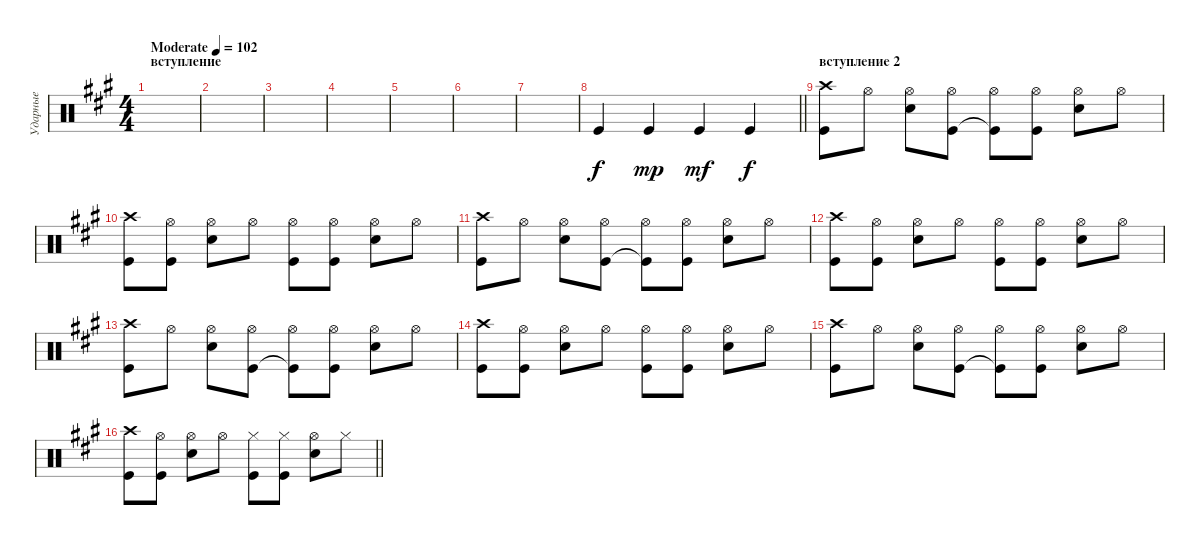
\track ("Ударные" "Ударные") {instrument percussion}
\staff {score}
\articulation defaults
\ts (4 4)
\section ("" "вступление")
\tempo (102 "Moderate")
\clef neutral
\ks f#minor
|
|
|
|
|
|
|
\barLineRight lightlight "Kick (hit)".4 "Kick (hit)".4{dy mp} "Kick (hit)".4{dy mf} "Kick (hit)".4{dy f}
|
\section ("" "вступление 2")
("Crash high (hit)" "Kick (hit)").8 "Hi-Hat (open)".8 ("Hi-Hat (open)" "Snare (hit) 2").8 ("Hi-Hat (open)" "Kick (hit)").8 ("Hi-Hat (open)" "Kick (hit)"{t}).8 ("Hi-Hat (open)" "Kick (hit)").8 ("Hi-Hat (open)" "Snare (hit) 2").8 "Hi-Hat (open)".8 |
("Crash high (hit)" "Kick (hit)").8 ("Hi-Hat (open)" "Kick (hit)").8 ("Hi-Hat (open)" "Snare (hit) 2").8 "Hi-Hat (open)".8 ("Hi-Hat (open)" "Kick (hit)").8 ("Hi-Hat (open)" "Kick (hit)").8 ("Hi-Hat (open)" "Snare (hit) 2").8 "Hi-Hat (open)".8 |
("Crash high (hit)" "Kick (hit)").8 "Hi-Hat (open)".8 ("Hi-Hat (open)" "Snare (hit) 2").8 ("Hi-Hat (open)" "Kick (hit)").8 ("Hi-Hat (open)" "Kick (hit)"{t}).8 ("Hi-Hat (open)" "Kick (hit)").8 ("Hi-Hat (open)" "Snare (hit) 2").8 "Hi-Hat (open)".8 |
("Crash high (hit)" "Kick (hit)").8 ("Hi-Hat (open)" "Kick (hit)").8 ("Hi-Hat (open)" "Snare (hit) 2").8 "Hi-Hat (open)".8 ("Hi-Hat (open)" "Kick (hit)").8 ("Hi-Hat (open)" "Kick (hit)").8 ("Hi-Hat (open)" "Snare (hit) 2").8 "Hi-Hat (open)".8 |
("Crash high (hit)" "Kick (hit)").8 "Hi-Hat (open)".8 ("Hi-Hat (open)" "Snare (hit) 2").8 ("Hi-Hat (open)" "Kick (hit)").8 ("Hi-Hat (open)" "Kick (hit)"{t}).8 ("Hi-Hat (open)" "Kick (hit)").8 ("Hi-Hat (open)" "Snare (hit) 2").8 "Hi-Hat (open)".8 |
("Crash high (hit)" "Kick (hit)").8 ("Hi-Hat (open)" "Kick (hit)").8 ("Hi-Hat (open)" "Snare (hit) 2").8 "Hi-Hat (open)".8 ("Hi-Hat (open)" "Kick (hit)").8 ("Hi-Hat (open)" "Kick (hit)").8 ("Hi-Hat (open)" "Snare (hit) 2").8 "Hi-Hat (open)".8 |
("Crash high (hit)" "Kick (hit)").8 "Hi-Hat (open)".8 ("Hi-Hat (open)" "Snare (hit) 2").8 ("Hi-Hat (open)" "Kick (hit)").8 ("Hi-Hat (open)" "Kick (hit)"{t}).8 ("Hi-Hat (open)" "Kick (hit)").8 ("Hi-Hat (open)" "Snare (hit) 2").8 "Hi-Hat (open)".8 |
\barLineRight lightlight
("Crash high (hit)" "Kick (hit)").8 ("Hi-Hat (open)" "Kick (hit)").8 ("Hi-Hat (open)" "Snare (hit) 2").8 "Hi-Hat (open)".8 ("Hi-Hat (closed)" "Kick (hit)").8 ("Hi-Hat (closed)" "Kick (hit)").8 ("Hi-Hat (open)" "Snare (hit) 2").8 "Hi-Hat (closed)".8
